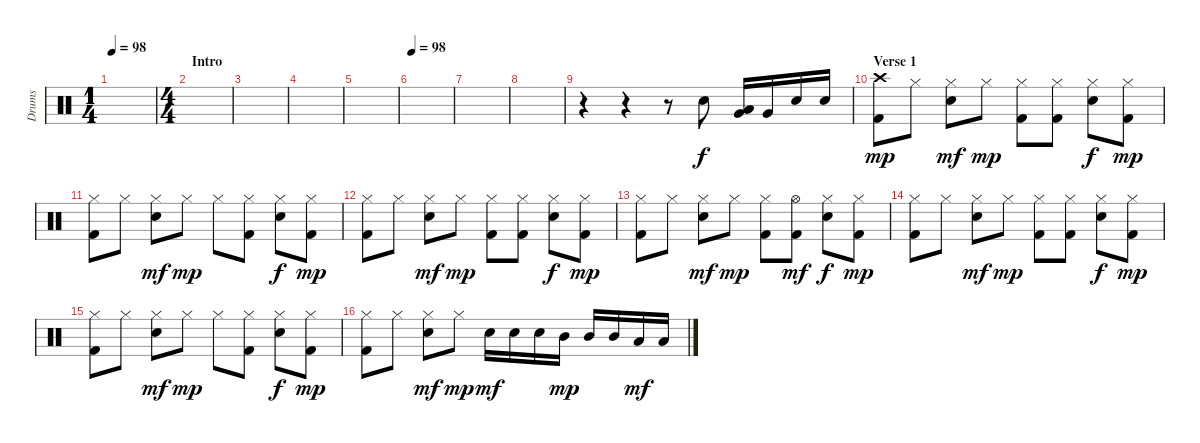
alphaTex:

\track ("Drums" "Drums") {instrument percussion}
\staff {score}
\articulation defaults
\ts (1 4)
\tempo 98
\tempo 87
\tempo 98
\clef neutral
\ks c
|
\ts (4 4)
\section ("" "Intro")
|
|
|
|
\tempo 98
|
|
|
r.4 r.4 r.8 "Snare (hit) 2".8 ("Low Floor Tom (hit)" "Very Low Tom (hit)").16{bd 240} "Very Low Tom (hit)".16 "Snare (hit) 2".16 "Snare (hit) 2".16 |
\section ("" "Verse 1")
("Crash high (hit)" "Kick (hit) 2").8{dy mp} "Hi-Hat (closed)".8 ("Hi-Hat (closed)" "Snare (hit) 2").8{dy mf} "Hi-Hat (closed)".8{dy mp} ("Hi-Hat (closed)" "Kick (hit) 2").8 ("Hi-Hat (closed)" "Kick (hit) 2").8 ("Hi-Hat (closed)" "Snare (hit) 2").8{dy f} ("Hi-Hat (closed)" "Kick (hit) 2").8{dy mp} |
("Hi-Hat (closed)" "Kick (hit) 2").8 "Hi-Hat (closed)".8 ("Hi-Hat (closed)" "Snare (hit) 2").8{dy mf} "Hi-Hat (closed)".8{dy mp} "Hi-Hat (closed)".8 ("Hi-Hat (closed)" "Kick (hit) 2").8 ("Hi-Hat (closed)" "Snare (hit) 2").8{dy f} ("Hi-Hat (closed)" "Kick (hit) 2").8{dy mp} |
("Hi-Hat (closed)" "Kick (hit) 2").8 "Hi-Hat (closed)".8 ("Hi-Hat (closed)" "Snare (hit) 2").8{dy mf} "Hi-Hat (closed)".8{dy mp} ("Hi-Hat (closed)" "Kick (hit) 2").8 ("Hi-Hat (closed)" "Kick (hit) 2").8 ("Hi-Hat (closed)" "Snare (hit) 2").8{dy f} ("Hi-Hat (closed)" "Kick (hit) 2").8{dy mp} |
("Hi-Hat (closed)" "Kick (hit) 2").8 "Hi-Hat (closed)".8 ("Hi-Hat (closed)" "Snare (hit) 2").8{dy mf} "Hi-Hat (closed)".8{dy mp} ("Hi-Hat (closed)" "Kick (hit) 2").8 ("Hi-Hat (open)" "Kick (hit) 2").8{dy mf} ("Hi-Hat (closed)" "Snare (hit) 2").8{dy f} ("Hi-Hat (closed)" "Kick (hit) 2").8{dy mp} |
("Hi-Hat (closed)" "Kick (hit) 2").8 "Hi-Hat (closed)".8 ("Hi-Hat (closed)" "Snare (hit) 2").8{dy mf} "Hi-Hat (closed)".8{dy mp} ("Hi-Hat (closed)" "Kick (hit) 2").8 ("Hi-Hat (closed)" "Kick (hit) 2").8 ("Hi-Hat (closed)" "Snare (hit) 2").8{dy f} ("Hi-Hat (closed)" "Kick (hit) 2").8{dy mp} |
("Hi-Hat (closed)" "Kick (hit) 2").8 "Hi-Hat (closed)".8 ("Hi-Hat (closed)" "Snare (hit) 2").8{dy mf} "Hi-Hat (closed)".8{dy mp} "Hi-Hat (closed)".8 ("Hi-Hat (closed)" "Kick (hit) 2").8 ("Hi-Hat (closed)" "Snare (hit) 2").8{dy f} ("Hi-Hat (closed)" "Kick (hit) 2").8{dy mp} |
("Hi-Hat (closed)" "Kick (hit) 2").8 "Hi-Hat (closed)".8 ("Hi-Hat (closed)" "Snare (hit) 2").8{dy mf} "Hi-Hat (closed)".8{dy mp} "Snare (hit) 2".16{dy mf} "Snare (hit) 2".16 "Snare (hit) 2".16 "Mid Tom (hit)".16{dy mp} "Mid Tom (hit)".16 "Mid Tom (hit)".16 "Low Tom (hit)".16{dy mf} "Low Tom (hit)".16
